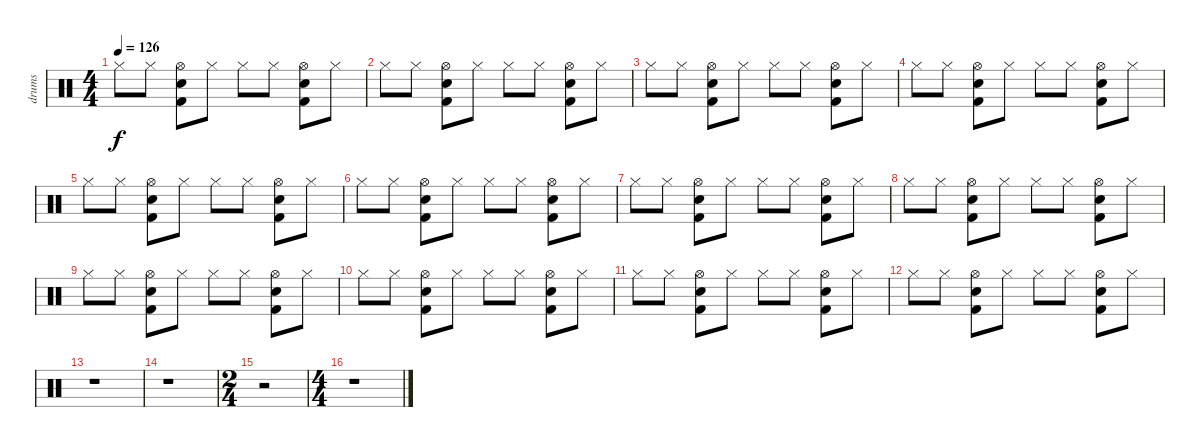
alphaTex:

\track ("drums" "drums") {instrument percussion}
\staff {score}
\articulation defaults
\ts (4 4)
\tempo 126
\clef neutral
\ks c "Hi-Hat (closed)".8{dy f} "Hi-Hat (closed)".8
("Snare (hit) 2" "Hi-Hat (open)" "Kick (hit) 2").8 "Hi-Hat (closed)".8 "Hi-Hat (closed)".8 "Hi-Hat (closed)".8 ("Snare (hit) 2" "Hi-Hat (open)" "Kick (hit) 2").8 "Hi-Hat (closed)".8 |
"Hi-Hat (closed)".8 "Hi-Hat (closed)".8 ("Snare (hit) 2" "Hi-Hat (open)" "Kick (hit) 2").8 "Hi-Hat (closed)".8 "Hi-Hat (closed)".8 "Hi-Hat (closed)".8 ("Snare (hit) 2" "Hi-Hat (open)" "Kick (hit) 2").8 "Hi-Hat (closed)".8 |
"Hi-Hat (closed)".8 "Hi-Hat (closed)".8 ("Snare (hit) 2" "Hi-Hat (open)" "Kick (hit) 2").8 "Hi-Hat (closed)".8 "Hi-Hat (closed)".8 "Hi-Hat (closed)".8 ("Snare (hit) 2" "Hi-Hat (open)" "Kick (hit) 2").8 "Hi-Hat (closed)".8 |
"Hi-Hat (closed)".8 "Hi-Hat (closed)".8 ("Snare (hit) 2" "Hi-Hat (open)" "Kick (hit) 2").8 "Hi-Hat (closed)".8 "Hi-Hat (closed)".8 "Hi-Hat (closed)".8 ("Snare (hit) 2" "Hi-Hat (open)" "Kick (hit) 2").8 "Hi-Hat (closed)".8 |
"Hi-Hat (closed)".8 "Hi-Hat (closed)".8 ("Snare (hit) 2" "Hi-Hat (open)" "Kick (hit) 2").8 "Hi-Hat (closed)".8 "Hi-Hat (closed)".8 "Hi-Hat (closed)".8 ("Snare (hit) 2" "Hi-Hat (open)" "Kick (hit) 2").8 "Hi-Hat (closed)".8 |
"Hi-Hat (closed)".8 "Hi-Hat (closed)".8 ("Snare (hit) 2" "Hi-Hat (open)" "Kick (hit) 2").8 "Hi-Hat (closed)".8 "Hi-Hat (closed)".8 "Hi-Hat (closed)".8 ("Snare (hit) 2" "Hi-Hat (open)" "Kick (hit) 2").8 "Hi-Hat (closed)".8 |
"Hi-Hat (closed)".8 "Hi-Hat (closed)".8 ("Snare (hit) 2" "Hi-Hat (open)" "Kick (hit) 2").8 "Hi-Hat (closed)".8 "Hi-Hat (closed)".8 "Hi-Hat (closed)".8 ("Snare (hit) 2" "Hi-Hat (open)" "Kick (hit) 2").8 "Hi-Hat (closed)".8 |
"Hi-Hat (closed)".8 "Hi-Hat (closed)".8 ("Snare (hit) 2" "Hi-Hat (open)" "Kick (hit) 2").8 "Hi-Hat (closed)".8 "Hi-Hat (closed)".8 "Hi-Hat (closed)".8 ("Snare (hit) 2" "Hi-Hat (open)" "Kick (hit) 2").8 "Hi-Hat (closed)".8 |
"Hi-Hat (closed)".8 "Hi-Hat (closed)".8 ("Snare (hit) 2" "Hi-Hat (open)" "Kick (hit) 2").8 "Hi-Hat (closed)".8 "Hi-Hat (closed)".8 "Hi-Hat (closed)".8 ("Snare (hit) 2" "Hi-Hat (open)" "Kick (hit) 2").8 "Hi-Hat (closed)".8 |
"Hi-Hat (closed)".8 "Hi-Hat (closed)".8 ("Snare (hit) 2" "Hi-Hat (open)" "Kick (hit) 2").8 "Hi-Hat (closed)".8 "Hi-Hat (closed)".8 "Hi-Hat (closed)".8 ("Snare (hit) 2" "Hi-Hat (open)" "Kick (hit) 2").8 "Hi-Hat (closed)".8 |
"Hi-Hat (closed)".8 "Hi-Hat (closed)".8 ("Snare (hit) 2" "Hi-Hat (open)" "Kick (hit) 2").8 "Hi-Hat (closed)".8 "Hi-Hat (closed)".8 "Hi-Hat (closed)".8 ("Snare (hit) 2" "Hi-Hat (open)" "Kick (hit) 2").8 "Hi-Hat (closed)".8 |
"Hi-Hat (closed)".8 "Hi-Hat (closed)".8 ("Snare (hit) 2" "Hi-Hat (open)" "Kick (hit) 2").8 "Hi-Hat (closed)".8 "Hi-Hat (closed)".8 "Hi-Hat (closed)".8 ("Snare (hit) 2" "Hi-Hat (open)" "Kick (hit) 2").8 "Hi-Hat (closed)".8 |
r.1 |
r.1 |
\ts (2 4)
r.2 |
\ts (4 4)
r.1
